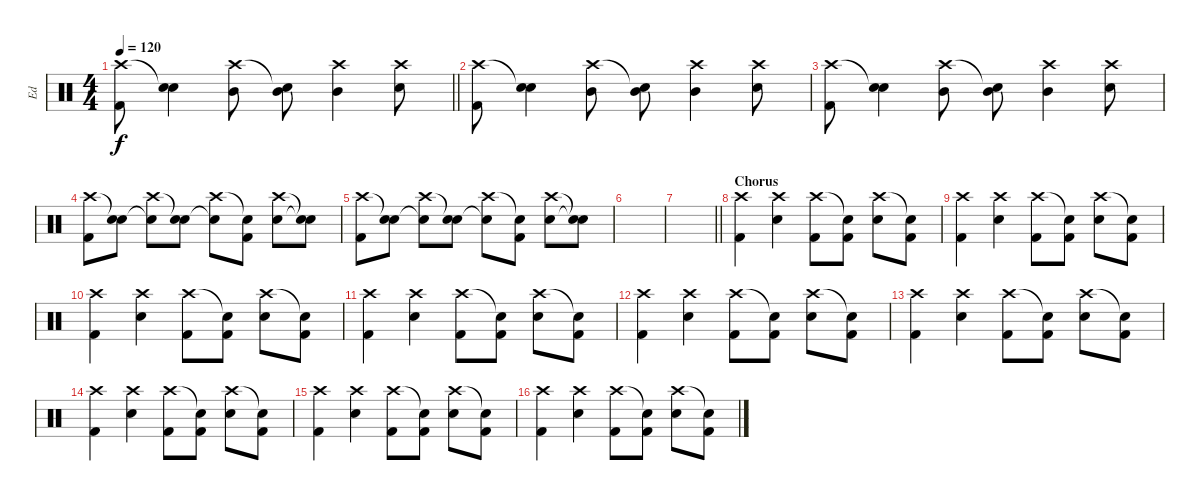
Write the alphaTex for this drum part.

\track ("Ed" "Ed") {instrument percussion}
\staff {score}
\articulation defaults
\ts (4 4)
\tempo 120
\clef neutral
\barLineRight lightlight
\ks c
("Crash high (hit)" "Kick (hit) 2").8{dy f} ("Snare (hit)"{t} "Snare (hit) 2").4 ("Crash high (hit)" "Mid Tom (hit)").8 ("Snare (hit)"{t} "Mid Tom (hit)").8 ("Crash high (hit)" "Mid Tom (hit)").4 ("Crash high (hit)" "Snare (hit) 2").8 |
("Crash high (hit)" "Kick (hit) 2").8 ("Snare (hit)"{t} "Snare (hit) 2").4 ("Crash high (hit)" "Mid Tom (hit)").8 ("Snare (hit)"{t} "Mid Tom (hit)").8 ("Crash high (hit)" "Mid Tom (hit)").4 ("Crash high (hit)" "Snare (hit) 2").8 |
("Crash high (hit)" "Kick (hit) 2").8 ("Snare (hit)"{t} "Snare (hit) 2").4 ("Crash high (hit)" "Mid Tom (hit)").8 ("Snare (hit)"{t} "Mid Tom (hit)").8 ("Crash high (hit)" "Mid Tom (hit)").4 ("Crash high (hit)" "Snare (hit) 2").8 |
("Crash high (hit)" "Kick (hit) 2").8 ("Snare (hit)"{t} "Snare (hit) 2").8 ("Crash high (hit)" "Snare (hit)"{t}).8 ("Snare (hit)"{t} "Snare (hit) 2").8 ("Crash high (hit)" "Snare (hit)"{t}).8 ("Snare (hit)"{t} "Kick (hit) 2").8 ("Crash high (hit)" "Snare (hit) 2").8 ("Snare (hit)"{t} "Snare (hit)"{t}).8 |
("Crash high (hit)" "Kick (hit) 2").8 ("Snare (hit)"{t} "Snare (hit) 2").8 ("Crash high (hit)" "Snare (hit)"{t}).8 ("Snare (hit)"{t} "Snare (hit) 2").8 ("Crash high (hit)" "Snare (hit)"{t}).8 ("Snare (hit)"{t} "Kick (hit) 2").8 ("Crash high (hit)" "Snare (hit) 2").8 ("Snare (hit)"{t} "Snare (hit)"{t}).8 |
|
\barLineRight lightlight
|
\section ("" "Chorus")
("Crash high (hit)" "Kick (hit) 2").4 ("Crash high (hit)" "Snare (hit) 2").4 ("Crash high (hit)" "Kick (hit) 2").8 ("Snare (hit)"{t} "Kick (hit) 2").8 ("Crash high (hit)" "Snare (hit) 2").8 ("Snare (hit)"{t} "Kick (hit) 2").8 |
("Crash high (hit)" "Kick (hit) 2").4 ("Crash high (hit)" "Snare (hit) 2").4 ("Crash high (hit)" "Kick (hit) 2").8 ("Snare (hit)"{t} "Kick (hit) 2").8 ("Crash high (hit)" "Snare (hit) 2").8 ("Snare (hit)"{t} "Kick (hit) 2").8 |
("Crash high (hit)" "Kick (hit) 2").4 ("Crash high (hit)" "Snare (hit) 2").4 ("Crash high (hit)" "Kick (hit) 2").8 ("Snare (hit)"{t} "Kick (hit) 2").8 ("Crash high (hit)" "Snare (hit) 2").8 ("Snare (hit)"{t} "Kick (hit) 2").8 |
("Crash high (hit)" "Kick (hit) 2").4 ("Crash high (hit)" "Snare (hit) 2").4 ("Crash high (hit)" "Kick (hit) 2").8 ("Snare (hit)"{t} "Kick (hit) 2").8 ("Crash high (hit)" "Snare (hit) 2").8 ("Snare (hit)"{t} "Kick (hit) 2").8 |
("Crash high (hit)" "Kick (hit) 2").4 ("Crash high (hit)" "Snare (hit) 2").4 ("Crash high (hit)" "Kick (hit) 2").8 ("Snare (hit)"{t} "Kick (hit) 2").8 ("Crash high (hit)" "Snare (hit) 2").8 ("Snare (hit)"{t} "Kick (hit) 2").8 |
("Crash high (hit)" "Kick (hit) 2").4 ("Crash high (hit)" "Snare (hit) 2").4 ("Crash high (hit)" "Kick (hit) 2").8 ("Snare (hit)"{t} "Kick (hit) 2").8 ("Crash high (hit)" "Snare (hit) 2").8 ("Snare (hit)"{t} "Kick (hit) 2").8 |
("Crash high (hit)" "Kick (hit) 2").4 ("Crash high (hit)" "Snare (hit) 2").4 ("Crash high (hit)" "Kick (hit) 2").8 ("Snare (hit)"{t} "Kick (hit) 2").8 ("Crash high (hit)" "Snare (hit) 2").8 ("Snare (hit)"{t} "Kick (hit) 2").8 |
("Crash high (hit)" "Kick (hit) 2").4 ("Crash high (hit)" "Snare (hit) 2").4 ("Crash high (hit)" "Kick (hit) 2").8 ("Snare (hit)"{t} "Kick (hit) 2").8 ("Crash high (hit)" "Snare (hit) 2").8 ("Snare (hit)"{t} "Kick (hit) 2").8 |
("Crash high (hit)" "Kick (hit) 2").4 ("Crash high (hit)" "Snare (hit) 2").4 ("Crash high (hit)" "Kick (hit) 2").8 ("Snare (hit)"{t} "Kick (hit) 2").8 ("Crash high (hit)" "Snare (hit) 2").8 ("Snare (hit)"{t} "Kick (hit) 2").8
